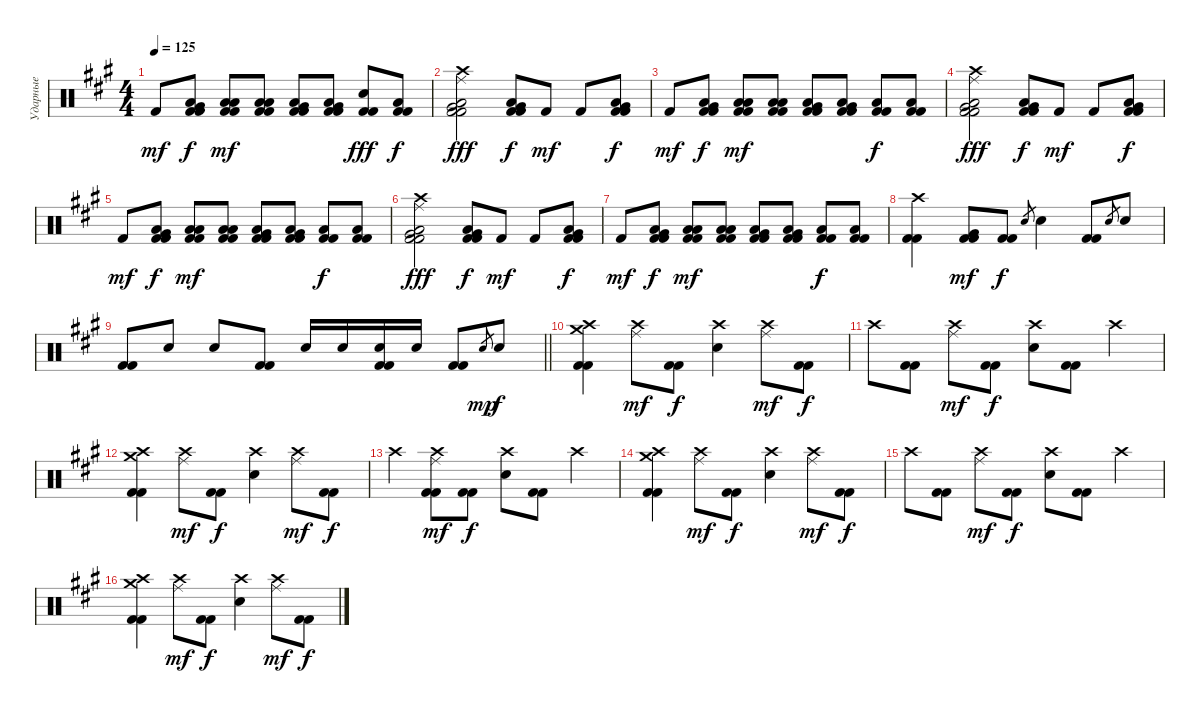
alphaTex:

\track ("Ударные" "Ударные") {instrument percussion}
\staff {score}
\articulation defaults
\ts (4 4)
\tempo 125
\clef neutral
\ks f#minor "Kick (hit) 2".8{dy mf}
("Very Low Tom (hit)" "Low Floor Tom (hit)" "Kick (hit) 2" "Kick (hit) 2").8{dy f} ("Low Tom (hit)" "Low Floor Tom (hit)" "Kick (hit) 2" "Kick (hit) 2").8{dy mf} ("Low Tom (hit)" "Low Floor Tom (hit)" "Kick (hit) 2" "Kick (hit) 2").8 ("Very Low Tom (hit)" "Low Floor Tom (hit)" "Kick (hit) 2" "Kick (hit) 2").8 ("Very Low Tom (hit)" "Low Floor Tom (hit)" "Kick (hit) 2" "Kick (hit) 2").8 ("Electric Snare (hit)" "Kick (hit) 2" "Kick (hit) 2").8{dy fff} ("Low Floor Tom (hit)" "Kick (hit) 2" "Kick (hit) 2").8{dy f} |
("Crash high (hit)" "Ride (middle)" "Very Low Tom (hit)" "Low Floor Tom (hit)" "Kick (hit) 2" "Kick (hit) 2").2{dy fff} ("Very Low Tom (hit)" "Low Floor Tom (hit)" "Kick (hit) 2" "Kick (hit) 2").8{dy f} "Kick (hit) 2".8{dy mf} "Kick (hit) 2".8 ("Very Low Tom (hit)" "Low Floor Tom (hit)" "Kick (hit) 2" "Kick (hit) 2").8{dy f} |
"Kick (hit) 2".8{dy mf} ("Very Low Tom (hit)" "Low Floor Tom (hit)" "Kick (hit) 2" "Kick (hit) 2").8{dy f} ("Low Tom (hit)" "Low Floor Tom (hit)" "Kick (hit) 2" "Kick (hit) 2").8{dy mf} ("Low Tom (hit)" "Low Floor Tom (hit)" "Kick (hit) 2" "Kick (hit) 2").8 ("Very Low Tom (hit)" "Low Floor Tom (hit)" "Kick (hit) 2" "Kick (hit) 2").8 ("Very Low Tom (hit)" "Low Floor Tom (hit)" "Kick (hit) 2" "Kick (hit) 2").8 ("Low Floor Tom (hit)" "Kick (hit) 2" "Kick (hit) 2").8{dy f} ("Low Floor Tom (hit)" "Kick (hit) 2" "Kick (hit) 2").8 |
("Crash high (hit)" "Ride (middle)" "Very Low Tom (hit)" "Low Floor Tom (hit)" "Kick (hit) 2" "Kick (hit) 2").2{dy fff} ("Very Low Tom (hit)" "Low Floor Tom (hit)" "Kick (hit) 2" "Kick (hit) 2").8{dy f} "Kick (hit) 2".8{dy mf} "Kick (hit) 2".8 ("Very Low Tom (hit)" "Low Floor Tom (hit)" "Kick (hit) 2" "Kick (hit) 2").8{dy f} |
"Kick (hit) 2".8{dy mf} ("Very Low Tom (hit)" "Low Floor Tom (hit)" "Kick (hit) 2" "Kick (hit) 2").8{dy f} ("Low Tom (hit)" "Low Floor Tom (hit)" "Kick (hit) 2" "Kick (hit) 2").8{dy mf} ("Low Tom (hit)" "Low Floor Tom (hit)" "Kick (hit) 2" "Kick (hit) 2").8 ("Very Low Tom (hit)" "Low Floor Tom (hit)" "Kick (hit) 2" "Kick (hit) 2").8 ("Very Low Tom (hit)" "Low Floor Tom (hit)" "Kick (hit) 2" "Kick (hit) 2").8 ("Low Floor Tom (hit)" "Kick (hit) 2" "Kick (hit) 2").8{dy f} ("Low Floor Tom (hit)" "Kick (hit) 2" "Kick (hit) 2").8 |
("Crash high (hit)" "Ride (middle)" "Very Low Tom (hit)" "Low Floor Tom (hit)" "Kick (hit) 2" "Kick (hit) 2").2{dy fff} ("Very Low Tom (hit)" "Low Floor Tom (hit)" "Kick (hit) 2" "Kick (hit) 2").8{dy f} "Kick (hit) 2".8{dy mf} "Kick (hit) 2".8 ("Very Low Tom (hit)" "Low Floor Tom (hit)" "Kick (hit) 2" "Kick (hit) 2").8{dy f} |
"Kick (hit) 2".8{dy mf} ("Very Low Tom (hit)" "Low Floor Tom (hit)" "Kick (hit) 2" "Kick (hit) 2").8{dy f} ("Low Tom (hit)" "Low Floor Tom (hit)" "Kick (hit) 2" "Kick (hit) 2").8{dy mf} ("Low Tom (hit)" "Low Floor Tom (hit)" "Kick (hit) 2" "Kick (hit) 2").8 ("Very Low Tom (hit)" "Low Floor Tom (hit)" "Kick (hit) 2" "Kick (hit) 2").8 ("Very Low Tom (hit)" "Low Floor Tom (hit)" "Kick (hit) 2" "Kick (hit) 2").8 ("Low Floor Tom (hit)" "Kick (hit) 2" "Kick (hit) 2").8{dy f} ("Low Floor Tom (hit)" "Kick (hit) 2" "Kick (hit) 2").8 |
("Crash high (hit)" "Kick (hit) 2" "Kick (hit) 2").4 ("Very Low Tom (hit)" "Kick (hit) 2" "Kick (hit) 2").8{dy mf} ("Kick (hit) 2" "Kick (hit) 2").8{dy f} "Electric Snare (hit)".8{gr} "Electric Snare (hit)".4 ("Kick (hit) 2" "Kick (hit) 2").8 "Electric Snare (hit)".8{gr} "Electric Snare (hit)".8 |
\barLineRight lightlight
("Kick (hit) 2" "Kick (hit) 2").8 "Electric Snare (hit)".8 "Electric Snare (hit)".8 ("Kick (hit) 2" "Kick (hit) 2").8 "Electric Snare (hit)".16 "Electric Snare (hit)".16 ("Electric Snare (hit)" "Kick (hit) 2" "Kick (hit) 2").16 "Electric Snare (hit)".16 ("Kick (hit) 2" "Kick (hit) 2").8 "Electric Snare (hit)".8{gr dy mp} "Electric Snare (hit)".8{dy f} |
("Crash high (hit)" "Crash medium (hit)" "Kick (hit) 2" "Kick (hit) 2").4 ("Crash high (hit)" "Ride (middle)").8{dy mf} ("Kick (hit) 2" "Kick (hit) 2").8{dy f} ("Crash high (hit)" "Electric Snare (hit)").4 ("Crash high (hit)" "Ride (middle)").8{dy mf} ("Kick (hit) 2" "Kick (hit) 2").8{dy f} |
"Crash high (hit)".8 ("Kick (hit) 2" "Kick (hit) 2").8 ("Crash high (hit)" "Ride (middle)").8{dy mf} ("Kick (hit) 2" "Kick (hit) 2").8{dy f} ("Crash high (hit)" "Electric Snare (hit)").8 ("Kick (hit) 2" "Kick (hit) 2").8 "Crash high (hit)".4 |
("Crash high (hit)" "Crash medium (hit)" "Kick (hit) 2" "Kick (hit) 2").4 ("Crash high (hit)" "Ride (middle)").8{dy mf} ("Kick (hit) 2" "Kick (hit) 2").8{dy f} ("Crash high (hit)" "Electric Snare (hit)").4 ("Crash high (hit)" "Ride (middle)").8{dy mf} ("Kick (hit) 2" "Kick (hit) 2").8{dy f} |
"Crash high (hit)".4 ("Crash high (hit)" "Ride (middle)" "Kick (hit) 2" "Kick (hit) 2").8{dy mf} ("Kick (hit) 2" "Kick (hit) 2").8{dy f} ("Crash high (hit)" "Electric Snare (hit)").8 ("Kick (hit) 2" "Kick (hit) 2").8 "Crash high (hit)".4 |
("Crash high (hit)" "Crash medium (hit)" "Kick (hit) 2" "Kick (hit) 2").4 ("Crash high (hit)" "Ride (middle)").8{dy mf} ("Kick (hit) 2" "Kick (hit) 2").8{dy f} ("Crash high (hit)" "Electric Snare (hit)").4 ("Crash high (hit)" "Ride (middle)").8{dy mf} ("Kick (hit) 2" "Kick (hit) 2").8{dy f} |
"Crash high (hit)".8 ("Kick (hit) 2" "Kick (hit) 2").8 ("Crash high (hit)" "Ride (middle)").8{dy mf} ("Kick (hit) 2" "Kick (hit) 2").8{dy f} ("Crash high (hit)" "Electric Snare (hit)").8 ("Kick (hit) 2" "Kick (hit) 2").8 "Crash high (hit)".4 |
("Crash high (hit)" "Crash medium (hit)" "Kick (hit) 2" "Kick (hit) 2").4 ("Crash high (hit)" "Ride (middle)").8{dy mf} ("Kick (hit) 2" "Kick (hit) 2").8{dy f} ("Crash high (hit)" "Electric Snare (hit)").4 ("Crash high (hit)" "Ride (middle)").8{dy mf} ("Kick (hit) 2" "Kick (hit) 2").8{dy f}
